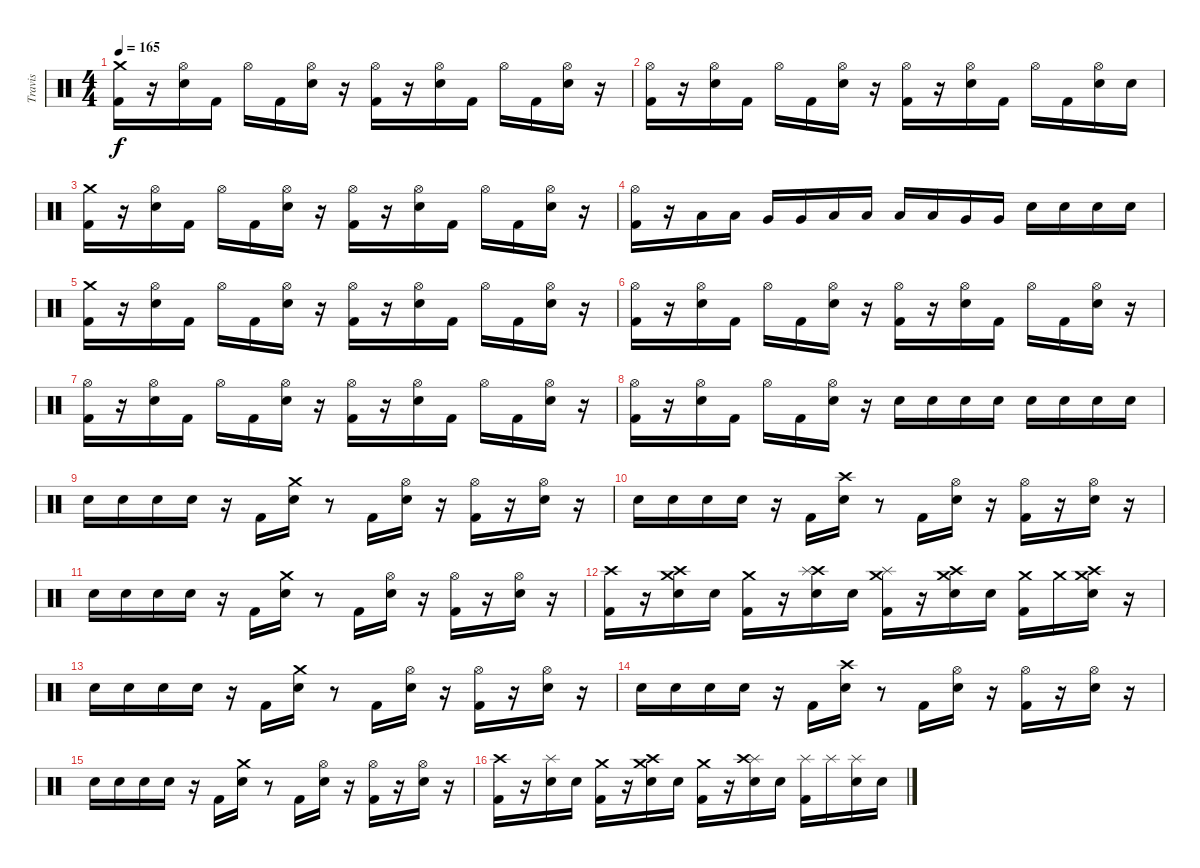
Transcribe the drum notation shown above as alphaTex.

\track ("Travis" "Travis") {instrument percussion}
\staff {score}
\articulation defaults
\ts (4 4)
\tempo 165
\clef neutral
\ks c
("Kick (hit) 2" "Crash medium (hit)").16{dy f} r.16 ("Electric Snare (hit)" "Hi-Hat (open)").16 "Kick (hit) 2".16 "Hi-Hat (open)".16 "Kick (hit) 2".16 ("Electric Snare (hit)" "Hi-Hat (open)").16 r.16 ("Kick (hit) 2" "Hi-Hat (open)").16 r.16 ("Electric Snare (hit)" "Hi-Hat (open)").16 "Kick (hit) 2".16 "Hi-Hat (open)".16 "Kick (hit) 2".16 ("Electric Snare (hit)" "Hi-Hat (open)").16 r.16 |
("Kick (hit) 2" "Hi-Hat (open)").16 r.16 ("Electric Snare (hit)" "Hi-Hat (open)").16 "Kick (hit) 2".16 "Hi-Hat (open)".16 "Kick (hit) 2".16 ("Electric Snare (hit)" "Hi-Hat (open)").16 r.16 ("Kick (hit) 2" "Hi-Hat (open)").16 r.16 ("Electric Snare (hit)" "Hi-Hat (open)").16 "Kick (hit) 2".16 "Hi-Hat (open)".16 "Kick (hit) 2".16 ("Electric Snare (hit)" "Hi-Hat (open)").16 "Electric Snare (hit)".16 |
("Kick (hit) 2" "Crash medium (hit)").16 r.16 ("Electric Snare (hit)" "Hi-Hat (open)").16 "Kick (hit) 2".16 "Hi-Hat (open)".16 "Kick (hit) 2".16 ("Electric Snare (hit)" "Hi-Hat (open)").16 r.16 ("Kick (hit) 2" "Hi-Hat (open)").16 r.16 ("Electric Snare (hit)" "Hi-Hat (open)").16 "Kick (hit) 2".16 "Hi-Hat (open)".16 "Kick (hit) 2".16 ("Electric Snare (hit)" "Hi-Hat (open)").16 r.16 |
("Kick (hit) 2" "Hi-Hat (open)").16 r.16 "Low Tom (hit)".16 "Low Tom (hit)".16 "Very Low Tom (hit)".16 "Very Low Tom (hit)".16 "Low Floor Tom (hit)".16 "Low Floor Tom (hit)".16 "Low Tom (hit)".16 "Low Tom (hit)".16 "Very Low Tom (hit)".16 "Very Low Tom (hit)".16 "Electric Snare (hit)".16 "Electric Snare (hit)".16 "Electric Snare (hit)".16 "Electric Snare (hit)".16 |
("Kick (hit) 2" "Crash medium (hit)").16 r.16 ("Electric Snare (hit)" "Hi-Hat (open)").16 "Kick (hit) 2".16 "Hi-Hat (open)".16 "Kick (hit) 2".16 ("Electric Snare (hit)" "Hi-Hat (open)").16 r.16 ("Kick (hit) 2" "Hi-Hat (open)").16 r.16 ("Electric Snare (hit)" "Hi-Hat (open)").16 "Kick (hit) 2".16 "Hi-Hat (open)".16 "Kick (hit) 2".16 ("Electric Snare (hit)" "Hi-Hat (open)").16 r.16 |
("Kick (hit) 2" "Hi-Hat (open)").16 r.16 ("Electric Snare (hit)" "Hi-Hat (open)").16 "Kick (hit) 2".16 "Hi-Hat (open)".16 "Kick (hit) 2".16 ("Electric Snare (hit)" "Hi-Hat (open)").16 r.16 ("Kick (hit) 2" "Hi-Hat (open)").16 r.16 ("Electric Snare (hit)" "Hi-Hat (open)").16 "Kick (hit) 2".16 "Hi-Hat (open)".16 "Kick (hit) 2".16 ("Electric Snare (hit)" "Hi-Hat (open)").16 r.16 |
("Kick (hit) 2" "Hi-Hat (open)").16 r.16 ("Electric Snare (hit)" "Hi-Hat (open)").16 "Kick (hit) 2".16 "Hi-Hat (open)".16 "Kick (hit) 2".16 ("Electric Snare (hit)" "Hi-Hat (open)").16 r.16 ("Kick (hit) 2" "Hi-Hat (open)").16 r.16 ("Electric Snare (hit)" "Hi-Hat (open)").16 "Kick (hit) 2".16 "Hi-Hat (open)".16 "Kick (hit) 2".16 ("Electric Snare (hit)" "Hi-Hat (open)").16 r.16 |
("Kick (hit) 2" "Hi-Hat (open)").16 r.16 ("Electric Snare (hit)" "Hi-Hat (open)").16 "Kick (hit) 2".16 "Hi-Hat (open)".16 "Kick (hit) 2".16 ("Electric Snare (hit)" "Hi-Hat (open)").16 r.16 "Electric Snare (hit)".16 "Electric Snare (hit)".16 "Electric Snare (hit)".16 "Electric Snare (hit)".16 "Electric Snare (hit)".16 "Electric Snare (hit)".16 "Electric Snare (hit)".16 "Electric Snare (hit)".16 |
"Electric Snare (hit)".16 "Electric Snare (hit)".16 "Electric Snare (hit)".16 "Electric Snare (hit)".16 r.16 "Kick (hit) 2".16 ("Electric Snare (hit)" "Crash medium (hit)").16 r.8 "Kick (hit) 2".16 ("Hi-Hat (open)" "Electric Snare (hit)").16 r.16 ("Hi-Hat (open)" "Kick (hit) 2").16 r.16 ("Hi-Hat (open)" "Electric Snare (hit)").16 r.16 |
"Electric Snare (hit)".16 "Electric Snare (hit)".16 "Electric Snare (hit)".16 "Electric Snare (hit)".16 r.16 "Kick (hit) 2".16 ("Electric Snare (hit)" "Crash high (hit)").16 r.8 "Kick (hit) 2".16 ("Hi-Hat (open)" "Electric Snare (hit)").16 r.16 ("Hi-Hat (open)" "Kick (hit) 2").16 r.16 ("Hi-Hat (open)" "Electric Snare (hit)").16 r.16 |
"Electric Snare (hit)".16 "Electric Snare (hit)".16 "Electric Snare (hit)".16 "Electric Snare (hit)".16 r.16 "Kick (hit) 2".16 ("Electric Snare (hit)" "Crash medium (hit)").16 r.8 "Kick (hit) 2".16 ("Hi-Hat (open)" "Electric Snare (hit)").16 r.16 ("Hi-Hat (open)" "Kick (hit) 2").16 r.16 ("Hi-Hat (open)" "Electric Snare (hit)").16 r.16 |
("Kick (hit) 2" "Crash high (hit)").16 r.16 ("Electric Snare (hit)" "Crash high (hit)" "Crash medium (hit)").16 "Electric Snare (hit)".16 ("Kick (hit) 2" "Crash medium (hit)").16 r.16 ("Electric Snare (hit)" "Crash high (hit)" "Splash (hit)").16 "Electric Snare (hit)".16 ("Kick (hit) 2" "Crash medium (hit)" "Splash (hit)").16 r.16 ("Electric Snare (hit)" "Crash medium (hit)" "Crash high (hit)").16 "Electric Snare (hit)".16 ("Kick (hit) 2" "Crash medium (hit)").16 "Crash medium (hit)".16 ("Electric Snare (hit)" "Crash high (hit)" "Crash medium (hit)").16 r.16 |
"Electric Snare (hit)".16 "Electric Snare (hit)".16 "Electric Snare (hit)".16 "Electric Snare (hit)".16 r.16 "Kick (hit) 2".16 ("Electric Snare (hit)" "Crash medium (hit)").16 r.8 "Kick (hit) 2".16 ("Hi-Hat (open)" "Electric Snare (hit)").16 r.16 ("Hi-Hat (open)" "Kick (hit) 2").16 r.16 ("Hi-Hat (open)" "Electric Snare (hit)").16 r.16 |
"Electric Snare (hit)".16 "Electric Snare (hit)".16 "Electric Snare (hit)".16 "Electric Snare (hit)".16 r.16 "Kick (hit) 2".16 ("Electric Snare (hit)" "Crash high (hit)").16 r.8 "Kick (hit) 2".16 ("Hi-Hat (open)" "Electric Snare (hit)").16 r.16 ("Hi-Hat (open)" "Kick (hit) 2").16 r.16 ("Hi-Hat (open)" "Electric Snare (hit)").16 r.16 |
"Electric Snare (hit)".16 "Electric Snare (hit)".16 "Electric Snare (hit)".16 "Electric Snare (hit)".16 r.16 "Kick (hit) 2".16 ("Electric Snare (hit)" "Crash medium (hit)").16 r.8 "Kick (hit) 2".16 ("Hi-Hat (open)" "Electric Snare (hit)").16 r.16 ("Hi-Hat (open)" "Kick (hit) 2").16 r.16 ("Hi-Hat (open)" "Electric Snare (hit)").16 r.16 |
("Kick (hit) 2" "Crash high (hit)").16 r.16 ("Electric Snare (hit)" "Splash (hit)").16 "Electric Snare (hit)".16 ("Kick (hit) 2" "Crash medium (hit)").16 r.16 ("Electric Snare (hit)" "Crash medium (hit)" "Crash high (hit)").16 "Electric Snare (hit)".16 ("Kick (hit) 2" "Crash medium (hit)").16 r.16 ("Electric Snare (hit)" "Splash (hit)" "Crash high (hit)").16 "Electric Snare (hit)".16 ("Kick (hit) 2" "Splash (hit)").16 "Splash (hit)".16 ("Electric Snare (hit)" "Splash (hit)").16 "Electric Snare (hit)".16
